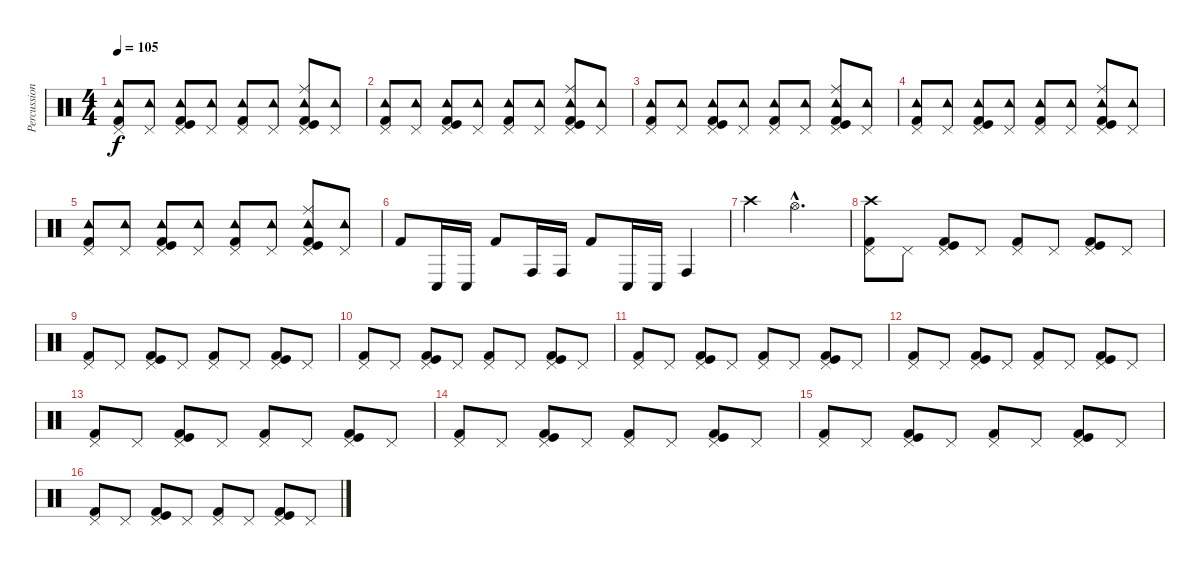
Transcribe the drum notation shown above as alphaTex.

\track ("Percussion" "Percussion") {instrument percussion}
\staff {score}
\articulation defaults
\ts (4 4)
\tempo 105
\clef neutral
\ks aminor
("Kick (hit) 2" "Pedal Hi-Hat (hit)" "Tambourine (hit)").8{dy f} ("Pedal Hi-Hat (hit)" "Tambourine (hit)").8 ("Kick (hit)" "Pedal Hi-Hat (hit)" "Tambourine (hit)" "Kick (hit) 2").8 ("Pedal Hi-Hat (hit)" "Tambourine (hit)").8 ("Kick (hit) 2" "Pedal Hi-Hat (hit)" "Tambourine (hit)").8 ("Pedal Hi-Hat (hit)" "Tambourine (hit)").8 ("Kick (hit)" "Pedal Hi-Hat (hit)" "Tambourine (hit)" "Kick (hit) 2" "Ride (middle)").8 ("Pedal Hi-Hat (hit)" "Tambourine (hit)").8 |
("Kick (hit) 2" "Pedal Hi-Hat (hit)" "Tambourine (hit)").8 ("Pedal Hi-Hat (hit)" "Tambourine (hit)").8 ("Kick (hit)" "Pedal Hi-Hat (hit)" "Tambourine (hit)" "Kick (hit) 2").8 ("Pedal Hi-Hat (hit)" "Tambourine (hit)").8 ("Kick (hit) 2" "Pedal Hi-Hat (hit)" "Tambourine (hit)").8 ("Pedal Hi-Hat (hit)" "Tambourine (hit)").8 ("Kick (hit)" "Pedal Hi-Hat (hit)" "Tambourine (hit)" "Kick (hit) 2" "Ride (middle)").8 ("Pedal Hi-Hat (hit)" "Tambourine (hit)").8 |
("Kick (hit) 2" "Pedal Hi-Hat (hit)" "Tambourine (hit)").8 ("Pedal Hi-Hat (hit)" "Tambourine (hit)").8 ("Kick (hit)" "Pedal Hi-Hat (hit)" "Tambourine (hit)" "Kick (hit) 2").8 ("Pedal Hi-Hat (hit)" "Tambourine (hit)").8 ("Kick (hit) 2" "Pedal Hi-Hat (hit)" "Tambourine (hit)").8 ("Pedal Hi-Hat (hit)" "Tambourine (hit)").8 ("Kick (hit)" "Pedal Hi-Hat (hit)" "Tambourine (hit)" "Kick (hit) 2" "Ride (middle)").8 ("Pedal Hi-Hat (hit)" "Tambourine (hit)").8 |
("Kick (hit) 2" "Pedal Hi-Hat (hit)" "Tambourine (hit)").8 ("Pedal Hi-Hat (hit)" "Tambourine (hit)").8 ("Kick (hit)" "Pedal Hi-Hat (hit)" "Tambourine (hit)" "Kick (hit) 2").8 ("Pedal Hi-Hat (hit)" "Tambourine (hit)").8 ("Kick (hit) 2" "Pedal Hi-Hat (hit)" "Tambourine (hit)").8 ("Pedal Hi-Hat (hit)" "Tambourine (hit)").8 ("Kick (hit)" "Pedal Hi-Hat (hit)" "Tambourine (hit)" "Kick (hit) 2" "Ride (middle)").8 ("Pedal Hi-Hat (hit)" "Tambourine (hit)").8 |
("Kick (hit) 2" "Pedal Hi-Hat (hit)" "Tambourine (hit)").8 ("Pedal Hi-Hat (hit)" "Tambourine (hit)").8 ("Kick (hit)" "Pedal Hi-Hat (hit)" "Tambourine (hit)" "Kick (hit) 2").8 ("Pedal Hi-Hat (hit)" "Tambourine (hit)").8 ("Kick (hit) 2" "Pedal Hi-Hat (hit)" "Tambourine (hit)").8 ("Pedal Hi-Hat (hit)" "Tambourine (hit)").8 ("Kick (hit)" "Pedal Hi-Hat (hit)" "Tambourine (hit)" "Kick (hit) 2" "Ride (middle)").8 ("Pedal Hi-Hat (hit)" "Tambourine (hit)").8 |
"Kick (hit) 2".8 "Conga low (hit)".16 "Conga low (hit)".16 "Kick (hit) 2".8 "Conga high (hit)".16 "Conga high (hit)".16 "Kick (hit) 2".8 "Conga low (hit)".16 "Conga low (hit)".16 "Conga high (hit)".4 |
"Crash high (hit)".4 "Hi-Hat (open)"{hac}.2{d} |
("Kick (hit) 2" "Pedal Hi-Hat (hit)" "Crash high (hit)").8 "Pedal Hi-Hat (hit)".8 ("Kick (hit)" "Pedal Hi-Hat (hit)" "Kick (hit) 2").8 "Pedal Hi-Hat (hit)".8 ("Kick (hit) 2" "Pedal Hi-Hat (hit)").8 "Pedal Hi-Hat (hit)".8 ("Kick (hit)" "Pedal Hi-Hat (hit)" "Kick (hit) 2").8 "Pedal Hi-Hat (hit)".8 |
("Kick (hit) 2" "Pedal Hi-Hat (hit)").8 "Pedal Hi-Hat (hit)".8 ("Kick (hit)" "Pedal Hi-Hat (hit)" "Kick (hit) 2").8 "Pedal Hi-Hat (hit)".8 ("Kick (hit) 2" "Pedal Hi-Hat (hit)").8 "Pedal Hi-Hat (hit)".8 ("Kick (hit)" "Pedal Hi-Hat (hit)" "Kick (hit) 2").8 "Pedal Hi-Hat (hit)".8 |
("Kick (hit) 2" "Pedal Hi-Hat (hit)").8 "Pedal Hi-Hat (hit)".8 ("Kick (hit)" "Pedal Hi-Hat (hit)" "Kick (hit) 2").8 "Pedal Hi-Hat (hit)".8 ("Kick (hit) 2" "Pedal Hi-Hat (hit)").8 "Pedal Hi-Hat (hit)".8 ("Kick (hit)" "Pedal Hi-Hat (hit)" "Kick (hit) 2").8 "Pedal Hi-Hat (hit)".8 |
("Kick (hit) 2" "Pedal Hi-Hat (hit)").8 "Pedal Hi-Hat (hit)".8 ("Kick (hit)" "Pedal Hi-Hat (hit)" "Kick (hit) 2").8 "Pedal Hi-Hat (hit)".8 ("Kick (hit) 2" "Pedal Hi-Hat (hit)").8 "Pedal Hi-Hat (hit)".8 ("Kick (hit)" "Pedal Hi-Hat (hit)" "Kick (hit) 2").8 "Pedal Hi-Hat (hit)".8 |
("Kick (hit) 2" "Pedal Hi-Hat (hit)").8 "Pedal Hi-Hat (hit)".8 ("Kick (hit)" "Pedal Hi-Hat (hit)" "Kick (hit) 2").8 "Pedal Hi-Hat (hit)".8 ("Kick (hit) 2" "Pedal Hi-Hat (hit)").8 "Pedal Hi-Hat (hit)".8 ("Kick (hit)" "Pedal Hi-Hat (hit)" "Kick (hit) 2").8 "Pedal Hi-Hat (hit)".8 |
("Kick (hit) 2" "Pedal Hi-Hat (hit)").8 "Pedal Hi-Hat (hit)".8 ("Kick (hit)" "Pedal Hi-Hat (hit)" "Kick (hit) 2").8 "Pedal Hi-Hat (hit)".8 ("Kick (hit) 2" "Pedal Hi-Hat (hit)").8 "Pedal Hi-Hat (hit)".8 ("Kick (hit)" "Pedal Hi-Hat (hit)" "Kick (hit) 2").8 "Pedal Hi-Hat (hit)".8 |
("Kick (hit) 2" "Pedal Hi-Hat (hit)").8 "Pedal Hi-Hat (hit)".8 ("Kick (hit)" "Pedal Hi-Hat (hit)" "Kick (hit) 2").8 "Pedal Hi-Hat (hit)".8 ("Kick (hit) 2" "Pedal Hi-Hat (hit)").8 "Pedal Hi-Hat (hit)".8 ("Kick (hit)" "Pedal Hi-Hat (hit)" "Kick (hit) 2").8 "Pedal Hi-Hat (hit)".8 |
("Kick (hit) 2" "Pedal Hi-Hat (hit)").8 "Pedal Hi-Hat (hit)".8 ("Kick (hit)" "Pedal Hi-Hat (hit)" "Kick (hit) 2").8 "Pedal Hi-Hat (hit)".8 ("Kick (hit) 2" "Pedal Hi-Hat (hit)").8 "Pedal Hi-Hat (hit)".8 ("Kick (hit)" "Pedal Hi-Hat (hit)" "Kick (hit) 2").8 "Pedal Hi-Hat (hit)".8 |
("Kick (hit) 2" "Pedal Hi-Hat (hit)").8 "Pedal Hi-Hat (hit)".8 ("Kick (hit)" "Pedal Hi-Hat (hit)" "Kick (hit) 2").8 "Pedal Hi-Hat (hit)".8 ("Kick (hit) 2" "Pedal Hi-Hat (hit)").8 "Pedal Hi-Hat (hit)".8 ("Kick (hit)" "Pedal Hi-Hat (hit)" "Kick (hit) 2").8 "Pedal Hi-Hat (hit)".8
